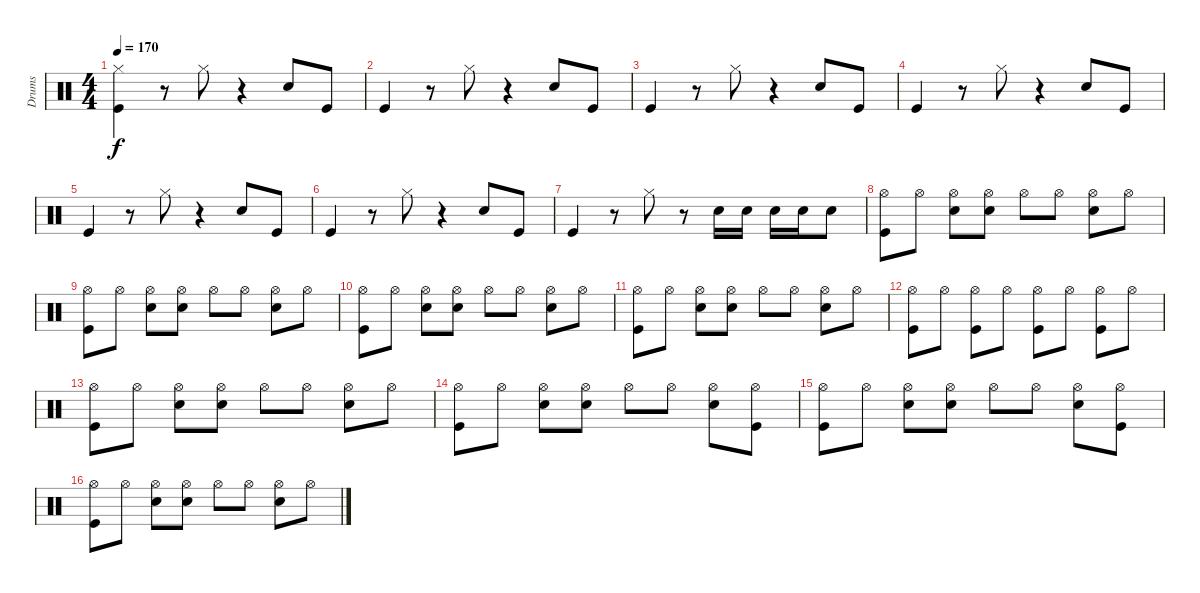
\track ("Drums" "Drums") {instrument percussion}
\staff {score}
\articulation defaults
\ts (4 4)
\tempo 170
\clef neutral
\ks c
("Kick (hit)" "Hi-Hat (closed)").4{dy f} r.8 "Hi-Hat (closed)".8 r.4 "Snare (hit) 2".8 "Kick (hit)".8 |
"Kick (hit)".4 r.8 "Hi-Hat (closed)".8 r.4 "Snare (hit) 2".8 "Kick (hit)".8 |
"Kick (hit)".4 r.8 "Hi-Hat (closed)".8 r.4 "Snare (hit) 2".8 "Kick (hit)".8 |
"Kick (hit)".4 r.8 "Hi-Hat (closed)".8 r.4 "Snare (hit) 2".8 "Kick (hit)".8 |
"Kick (hit)".4 r.8 "Hi-Hat (closed)".8 r.4 "Snare (hit) 2".8 "Kick (hit)".8 |
"Kick (hit)".4 r.8 "Hi-Hat (closed)".8 r.4 "Snare (hit) 2".8 "Kick (hit)".8 |
"Kick (hit)".4 r.8 "Hi-Hat (closed)".8 r.8 "Snare (hit) 2".16 "Snare (hit) 2".16 "Snare (hit) 2".16 "Snare (hit) 2".16 "Snare (hit) 2".8 |
("Hi-Hat (open)" "Kick (hit)").8 "Hi-Hat (open)".8 ("Hi-Hat (open)" "Snare (hit) 2").8 ("Hi-Hat (open)" "Snare (hit) 2").8 "Hi-Hat (open)".8 "Hi-Hat (open)".8 ("Hi-Hat (open)" "Snare (hit) 2").8 "Hi-Hat (open)".8 |
("Kick (hit)" "Hi-Hat (open)").8 "Hi-Hat (open)".8 ("Hi-Hat (open)" "Snare (hit) 2").8 ("Hi-Hat (open)" "Snare (hit) 2").8 "Hi-Hat (open)".8 "Hi-Hat (open)".8 ("Hi-Hat (open)" "Snare (hit) 2").8 "Hi-Hat (open)".8 |
("Kick (hit)" "Hi-Hat (open)").8 "Hi-Hat (open)".8 ("Hi-Hat (open)" "Snare (hit) 2").8 ("Hi-Hat (open)" "Snare (hit) 2").8 "Hi-Hat (open)".8 "Hi-Hat (open)".8 ("Hi-Hat (open)" "Snare (hit) 2").8 "Hi-Hat (open)".8 |
("Kick (hit)" "Hi-Hat (open)").8 "Hi-Hat (open)".8 ("Hi-Hat (open)" "Snare (hit) 2").8 ("Hi-Hat (open)" "Snare (hit) 2").8 "Hi-Hat (open)".8 "Hi-Hat (open)".8 ("Hi-Hat (open)" "Snare (hit) 2").8 "Hi-Hat (open)".8 |
("Hi-Hat (open)" "Kick (hit)").8 "Hi-Hat (open)".8 ("Hi-Hat (open)" "Kick (hit)").8 "Hi-Hat (open)".8 ("Hi-Hat (open)" "Kick (hit)").8 "Hi-Hat (open)".8 ("Hi-Hat (open)" "Kick (hit)").8 "Hi-Hat (open)".8 |
("Kick (hit)" "Hi-Hat (open)").8 "Hi-Hat (open)".8 ("Hi-Hat (open)" "Snare (hit) 2").8 ("Hi-Hat (open)" "Snare (hit) 2").8 "Hi-Hat (open)".8 "Hi-Hat (open)".8 ("Hi-Hat (open)" "Snare (hit) 2").8 "Hi-Hat (open)".8 |
("Kick (hit)" "Hi-Hat (open)").8 "Hi-Hat (open)".8 ("Hi-Hat (open)" "Snare (hit) 2").8 ("Hi-Hat (open)" "Snare (hit) 2").8 "Hi-Hat (open)".8 "Hi-Hat (open)".8 ("Hi-Hat (open)" "Snare (hit) 2").8 ("Hi-Hat (open)" "Kick (hit)").8 |
("Kick (hit)" "Hi-Hat (open)").8 "Hi-Hat (open)".8 ("Hi-Hat (open)" "Snare (hit) 2").8 ("Hi-Hat (open)" "Snare (hit) 2").8 "Hi-Hat (open)".8 "Hi-Hat (open)".8 ("Hi-Hat (open)" "Snare (hit) 2").8 ("Hi-Hat (open)" "Kick (hit)").8 |
("Kick (hit)" "Hi-Hat (open)").8 "Hi-Hat (open)".8 ("Hi-Hat (open)" "Snare (hit) 2").8 ("Hi-Hat (open)" "Snare (hit) 2").8 "Hi-Hat (open)".8 "Hi-Hat (open)".8 ("Hi-Hat (open)" "Snare (hit) 2").8 "Hi-Hat (open)".8
